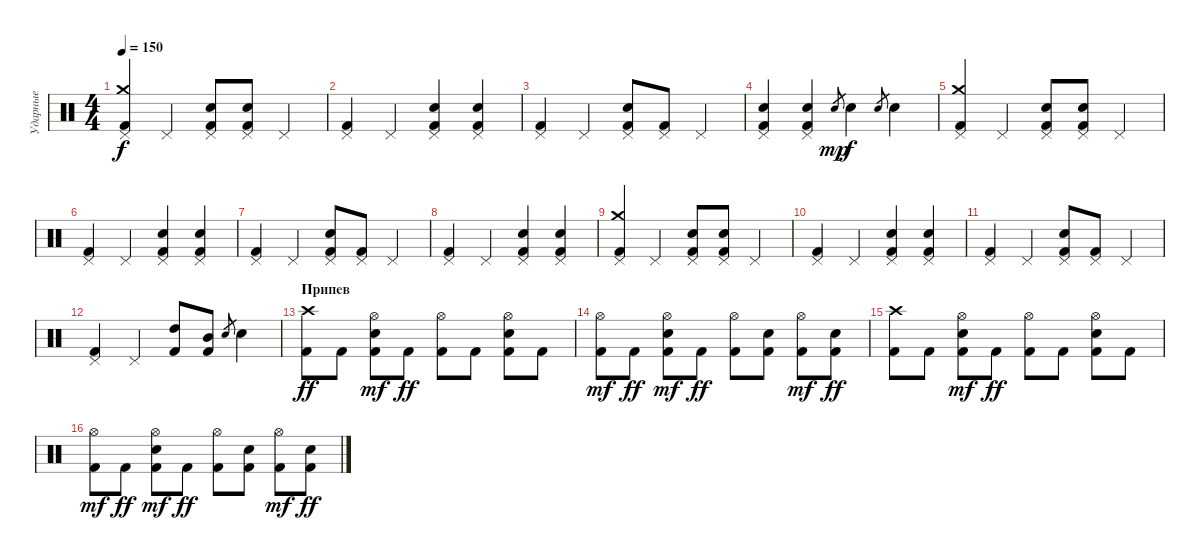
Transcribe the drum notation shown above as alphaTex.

\track ("Ударные" "Ударные") {instrument percussion}
\staff {score}
\articulation defaults
\ts (4 4)
\tempo 150
\clef neutral
\ks c
("Pedal Hi-Hat (hit)" "Crash medium (hit)" "Kick (hit) 2").4{dy f} "Pedal Hi-Hat (hit)".4 ("Pedal Hi-Hat (hit)" "Electric Snare (hit)" "Kick (hit) 2").8 ("Pedal Hi-Hat (hit)" "Electric Snare (hit)" "Kick (hit) 2").8 "Pedal Hi-Hat (hit)".4 |
("Pedal Hi-Hat (hit)" "Kick (hit) 2").4 "Pedal Hi-Hat (hit)".4 ("Pedal Hi-Hat (hit)" "Electric Snare (hit)" "Kick (hit) 2").4 ("Pedal Hi-Hat (hit)" "Electric Snare (hit)" "Kick (hit) 2").4 |
("Pedal Hi-Hat (hit)" "Kick (hit) 2").4 "Pedal Hi-Hat (hit)".4 ("Pedal Hi-Hat (hit)" "Electric Snare (hit)" "Kick (hit) 2").8 ("Pedal Hi-Hat (hit)" "Kick (hit) 2").8 "Pedal Hi-Hat (hit)".4 |
("Pedal Hi-Hat (hit)" "Electric Snare (hit)" "Kick (hit) 2").4 ("Pedal Hi-Hat (hit)" "Electric Snare (hit)" "Kick (hit) 2").4 "Electric Snare (hit)".8{gr dy mp} "Electric Snare (hit)".4{dy f} "Electric Snare (hit)".8{gr} "Electric Snare (hit)".4 |
("Pedal Hi-Hat (hit)" "Crash medium (hit)" "Kick (hit) 2").4 "Pedal Hi-Hat (hit)".4 ("Pedal Hi-Hat (hit)" "Electric Snare (hit)" "Kick (hit) 2").8 ("Pedal Hi-Hat (hit)" "Electric Snare (hit)" "Kick (hit) 2").8 "Pedal Hi-Hat (hit)".4 |
("Pedal Hi-Hat (hit)" "Kick (hit) 2").4 "Pedal Hi-Hat (hit)".4 ("Pedal Hi-Hat (hit)" "Electric Snare (hit)" "Kick (hit) 2").4 ("Pedal Hi-Hat (hit)" "Electric Snare (hit)" "Kick (hit) 2").4 |
("Pedal Hi-Hat (hit)" "Kick (hit) 2").4 "Pedal Hi-Hat (hit)".4 ("Pedal Hi-Hat (hit)" "Electric Snare (hit)" "Kick (hit) 2").8 ("Pedal Hi-Hat (hit)" "Kick (hit) 2").8 "Pedal Hi-Hat (hit)".4 |
("Pedal Hi-Hat (hit)" "Kick (hit) 2").4 "Pedal Hi-Hat (hit)".4 ("Pedal Hi-Hat (hit)" "Electric Snare (hit)" "Kick (hit) 2").4 ("Pedal Hi-Hat (hit)" "Electric Snare (hit)" "Kick (hit) 2").4 |
("Pedal Hi-Hat (hit)" "Crash medium (hit)" "Kick (hit) 2").4 "Pedal Hi-Hat (hit)".4 ("Pedal Hi-Hat (hit)" "Electric Snare (hit)" "Kick (hit) 2").8 ("Pedal Hi-Hat (hit)" "Electric Snare (hit)" "Kick (hit) 2").8 "Pedal Hi-Hat (hit)".4 |
("Pedal Hi-Hat (hit)" "Kick (hit) 2").4 "Pedal Hi-Hat (hit)".4 ("Pedal Hi-Hat (hit)" "Electric Snare (hit)" "Kick (hit) 2").4 ("Pedal Hi-Hat (hit)" "Electric Snare (hit)" "Kick (hit) 2").4 |
("Pedal Hi-Hat (hit)" "Kick (hit) 2").4 "Pedal Hi-Hat (hit)".4 ("Pedal Hi-Hat (hit)" "Electric Snare (hit)" "Kick (hit) 2").8 ("Pedal Hi-Hat (hit)" "Kick (hit) 2").8 "Pedal Hi-Hat (hit)".4 |
("Pedal Hi-Hat (hit)" "Kick (hit) 2").4 "Pedal Hi-Hat (hit)".4 ("High Tom (hit)" "Kick (hit) 2").8 ("Mid Tom (hit)" "Kick (hit) 2").8 "Electric Snare (hit)".8{gr} "Electric Snare (hit)".4 |
\section ("" "Припев")
("Crash high (hit)" "Kick (hit) 2").8{dy ff} "Kick (hit) 2".8 ("Kick (hit) 2" "Electric Snare (hit)" "Hi-Hat (open)").8{dy mf} "Kick (hit) 2".8{dy ff} ("Hi-Hat (open)" "Kick (hit) 2").8 "Kick (hit) 2".8 ("Kick (hit) 2" "Hi-Hat (open)" "Electric Snare (hit)").8 "Kick (hit) 2".8 |
("Kick (hit) 2" "Hi-Hat (open)").8{dy mf} "Kick (hit) 2".8{dy ff} ("Electric Snare (hit)" "Kick (hit) 2" "Hi-Hat (open)").8{dy mf} "Kick (hit) 2".8{dy ff} ("Hi-Hat (open)" "Kick (hit) 2").8 ("Kick (hit) 2" "Electric Snare (hit)").8 ("Kick (hit) 2" "Hi-Hat (open)").8{dy mf} ("Kick (hit) 2" "Electric Snare (hit)").8{dy ff} |
("Crash high (hit)" "Kick (hit) 2").8 "Kick (hit) 2".8 ("Kick (hit) 2" "Electric Snare (hit)" "Hi-Hat (open)").8{dy mf} "Kick (hit) 2".8{dy ff} ("Hi-Hat (open)" "Kick (hit) 2").8 "Kick (hit) 2".8 ("Kick (hit) 2" "Hi-Hat (open)" "Electric Snare (hit)").8 "Kick (hit) 2".8 |
("Kick (hit) 2" "Hi-Hat (open)").8{dy mf} "Kick (hit) 2".8{dy ff} ("Electric Snare (hit)" "Kick (hit) 2" "Hi-Hat (open)").8{dy mf} "Kick (hit) 2".8{dy ff} ("Hi-Hat (open)" "Kick (hit) 2").8 ("Kick (hit) 2" "Electric Snare (hit)").8 ("Kick (hit) 2" "Hi-Hat (open)").8{dy mf} ("Kick (hit) 2" "Electric Snare (hit)").8{dy ff}
